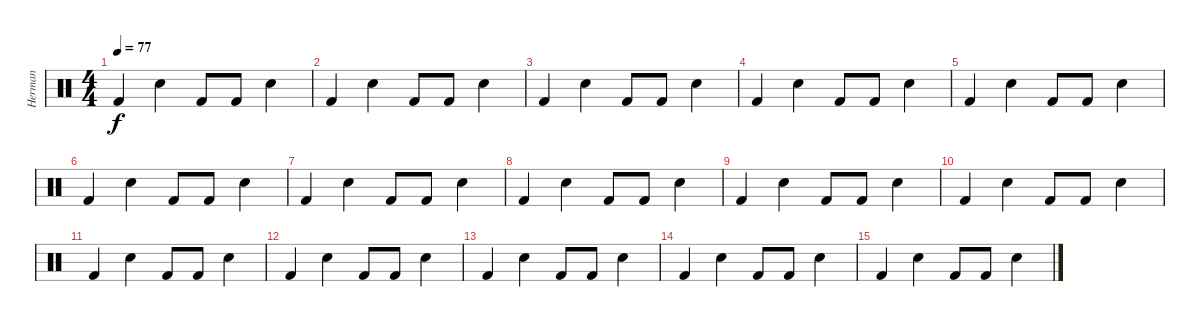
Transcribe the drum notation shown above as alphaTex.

\track ("Herman" "Herman") {instrument percussion}
\staff {score}
\articulation defaults
\ts (4 4)
\tempo 77
\clef neutral
\ks c "Kick (hit) 2".4{dy f} "Snare (hit) 2".4 "Kick (hit) 2".8 "Kick (hit) 2".8 "Snare (hit) 2".4
|
"Kick (hit) 2".4 "Snare (hit) 2".4 "Kick (hit) 2".8 "Kick (hit) 2".8 "Snare (hit) 2".4 |
"Kick (hit) 2".4 "Snare (hit) 2".4 "Kick (hit) 2".8 "Kick (hit) 2".8 "Snare (hit) 2".4 |
"Kick (hit) 2".4 "Snare (hit) 2".4 "Kick (hit) 2".8 "Kick (hit) 2".8 "Snare (hit) 2".4 |
"Kick (hit) 2".4 "Snare (hit) 2".4 "Kick (hit) 2".8 "Kick (hit) 2".8 "Snare (hit) 2".4 |
"Kick (hit) 2".4 "Snare (hit) 2".4 "Kick (hit) 2".8 "Kick (hit) 2".8 "Snare (hit) 2".4 |
"Kick (hit) 2".4 "Snare (hit) 2".4 "Kick (hit) 2".8 "Kick (hit) 2".8 "Snare (hit) 2".4 |
"Kick (hit) 2".4 "Snare (hit) 2".4 "Kick (hit) 2".8 "Kick (hit) 2".8 "Snare (hit) 2".4 |
"Kick (hit) 2".4 "Snare (hit) 2".4 "Kick (hit) 2".8 "Kick (hit) 2".8 "Snare (hit) 2".4 |
"Kick (hit) 2".4 "Snare (hit) 2".4 "Kick (hit) 2".8 "Kick (hit) 2".8 "Snare (hit) 2".4 |
"Kick (hit) 2".4 "Snare (hit) 2".4 "Kick (hit) 2".8 "Kick (hit) 2".8 "Snare (hit) 2".4 |
"Kick (hit) 2".4 "Snare (hit) 2".4 "Kick (hit) 2".8 "Kick (hit) 2".8 "Snare (hit) 2".4 |
"Kick (hit) 2".4 "Snare (hit) 2".4 "Kick (hit) 2".8 "Kick (hit) 2".8 "Snare (hit) 2".4 |
"Kick (hit) 2".4 "Snare (hit) 2".4 "Kick (hit) 2".8 "Kick (hit) 2".8 "Snare (hit) 2".4 |
"Kick (hit) 2".4 "Snare (hit) 2".4 "Kick (hit) 2".8 "Kick (hit) 2".8 "Snare (hit) 2".4
